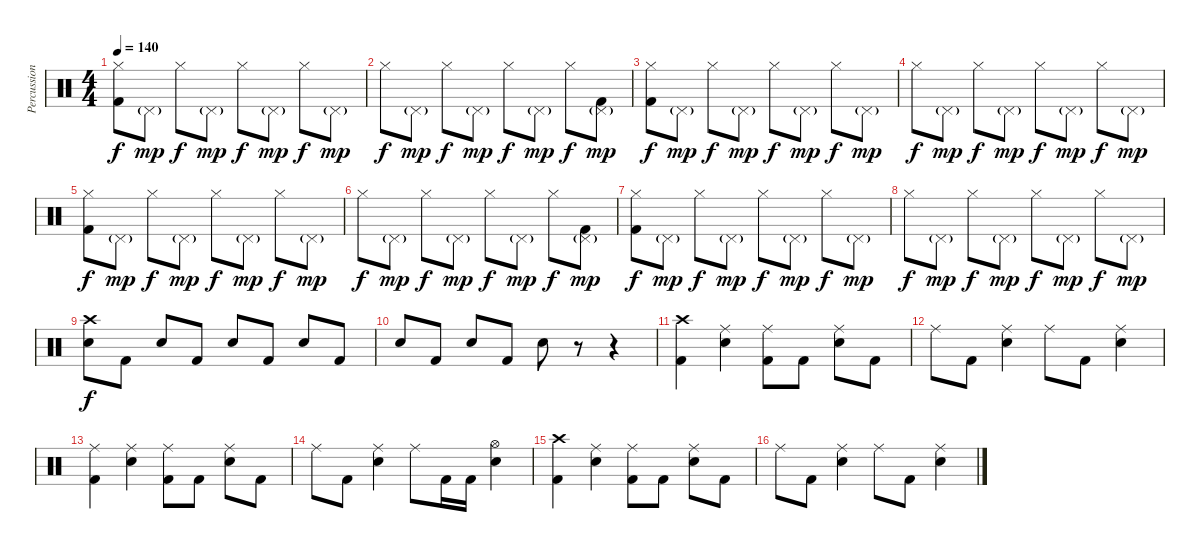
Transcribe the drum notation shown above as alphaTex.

\track ("Percussion" "Percussion") {instrument percussion}
\staff {score}
\articulation defaults
\ts (4 4)
\tempo 140
\clef neutral
\ks c
("Kick (hit) 2" "Hi-Hat (closed)").8{dy f} "Pedal Hi-Hat (hit)"{g}.8{dy mp} "Hi-Hat (closed)".8{dy f} "Pedal Hi-Hat (hit)"{g}.8{dy mp} "Hi-Hat (closed)".8{dy f} "Pedal Hi-Hat (hit)"{g}.8{dy mp} "Hi-Hat (closed)".8{dy f} "Pedal Hi-Hat (hit)"{g}.8{dy mp} |
"Hi-Hat (closed)".8{dy f} "Pedal Hi-Hat (hit)"{g}.8{dy mp} "Hi-Hat (closed)".8{dy f} "Pedal Hi-Hat (hit)"{g}.8{dy mp} "Hi-Hat (closed)".8{dy f} "Pedal Hi-Hat (hit)"{g}.8{dy mp} "Hi-Hat (closed)".8{dy f} ("Kick (hit) 2" "Pedal Hi-Hat (hit)"{g}).8{dy mp} |
("Kick (hit) 2" "Hi-Hat (closed)").8{dy f} "Pedal Hi-Hat (hit)"{g}.8{dy mp} "Hi-Hat (closed)".8{dy f} "Pedal Hi-Hat (hit)"{g}.8{dy mp} "Hi-Hat (closed)".8{dy f} "Pedal Hi-Hat (hit)"{g}.8{dy mp} "Hi-Hat (closed)".8{dy f} "Pedal Hi-Hat (hit)"{g}.8{dy mp} |
"Hi-Hat (closed)".8{dy f} "Pedal Hi-Hat (hit)"{g}.8{dy mp} "Hi-Hat (closed)".8{dy f} "Pedal Hi-Hat (hit)"{g}.8{dy mp} "Hi-Hat (closed)".8{dy f} "Pedal Hi-Hat (hit)"{g}.8{dy mp} "Hi-Hat (closed)".8{dy f} "Pedal Hi-Hat (hit)"{g}.8{dy mp} |
("Kick (hit) 2" "Hi-Hat (closed)").8{dy f} "Pedal Hi-Hat (hit)"{g}.8{dy mp} "Hi-Hat (closed)".8{dy f} "Pedal Hi-Hat (hit)"{g}.8{dy mp} "Hi-Hat (closed)".8{dy f} "Pedal Hi-Hat (hit)"{g}.8{dy mp} "Hi-Hat (closed)".8{dy f} "Pedal Hi-Hat (hit)"{g}.8{dy mp} |
"Hi-Hat (closed)".8{dy f} "Pedal Hi-Hat (hit)"{g}.8{dy mp} "Hi-Hat (closed)".8{dy f} "Pedal Hi-Hat (hit)"{g}.8{dy mp} "Hi-Hat (closed)".8{dy f} "Pedal Hi-Hat (hit)"{g}.8{dy mp} "Hi-Hat (closed)".8{dy f} ("Kick (hit) 2" "Pedal Hi-Hat (hit)"{g}).8{dy mp} |
("Kick (hit) 2" "Hi-Hat (closed)").8{dy f} "Pedal Hi-Hat (hit)"{g}.8{dy mp} "Hi-Hat (closed)".8{dy f} "Pedal Hi-Hat (hit)"{g}.8{dy mp} "Hi-Hat (closed)".8{dy f} "Pedal Hi-Hat (hit)"{g}.8{dy mp} "Hi-Hat (closed)".8{dy f} "Pedal Hi-Hat (hit)"{g}.8{dy mp} |
"Hi-Hat (closed)".8{dy f} "Pedal Hi-Hat (hit)"{g}.8{dy mp} "Hi-Hat (closed)".8{dy f} "Pedal Hi-Hat (hit)"{g}.8{dy mp} "Hi-Hat (closed)".8{dy f} "Pedal Hi-Hat (hit)"{g}.8{dy mp} "Hi-Hat (closed)".8{dy f} "Pedal Hi-Hat (hit)"{g}.8{dy mp} |
("Snare (hit) 2" "Crash high (hit)").8{dy f} "Kick (hit) 2".8 "Snare (hit) 2".8 "Kick (hit) 2".8 "Snare (hit) 2".8 "Kick (hit) 2".8 "Snare (hit) 2".8 "Kick (hit) 2".8 |
"Snare (hit) 2".8 "Kick (hit) 2".8 "Snare (hit) 2".8 "Kick (hit) 2".8 "Snare (hit) 2".8 r.8 r.4 |
("Kick (hit) 2" "Crash high (hit)").4 ("Snare (hit) 2" "Ride (middle)").4 ("Kick (hit) 2" "Ride (middle)").8 "Kick (hit) 2".8 ("Snare (hit) 2" "Ride (middle)").8 "Kick (hit) 2".8 |
"Ride (middle)".8 "Kick (hit) 2".8 ("Snare (hit) 2" "Ride (middle)").4 "Ride (middle)".8 "Kick (hit) 2".8 ("Snare (hit) 2" "Ride (middle)").4 |
("Kick (hit) 2" "Ride (middle)").4 ("Snare (hit) 2" "Ride (middle)").4 ("Kick (hit) 2" "Ride (middle)").8 "Kick (hit) 2".8 ("Snare (hit) 2" "Ride (middle)").8 "Kick (hit) 2".8 |
"Ride (middle)".8 "Kick (hit) 2".8 ("Snare (hit) 2" "Ride (middle)").4 "Ride (middle)".8 "Kick (hit) 2".16 "Kick (hit) 2".16 ("Snare (hit) 2" "Hi-Hat (open)").4 |
("Kick (hit) 2" "Crash high (hit)").4 ("Snare (hit) 2" "Ride (middle)").4 ("Kick (hit) 2" "Ride (middle)").8 "Kick (hit) 2".8 ("Snare (hit) 2" "Ride (middle)").8 "Kick (hit) 2".8 |
"Ride (middle)".8 "Kick (hit) 2".8 ("Snare (hit) 2" "Ride (middle)").4 "Ride (middle)".8 "Kick (hit) 2".8 ("Snare (hit) 2" "Ride (middle)").4
